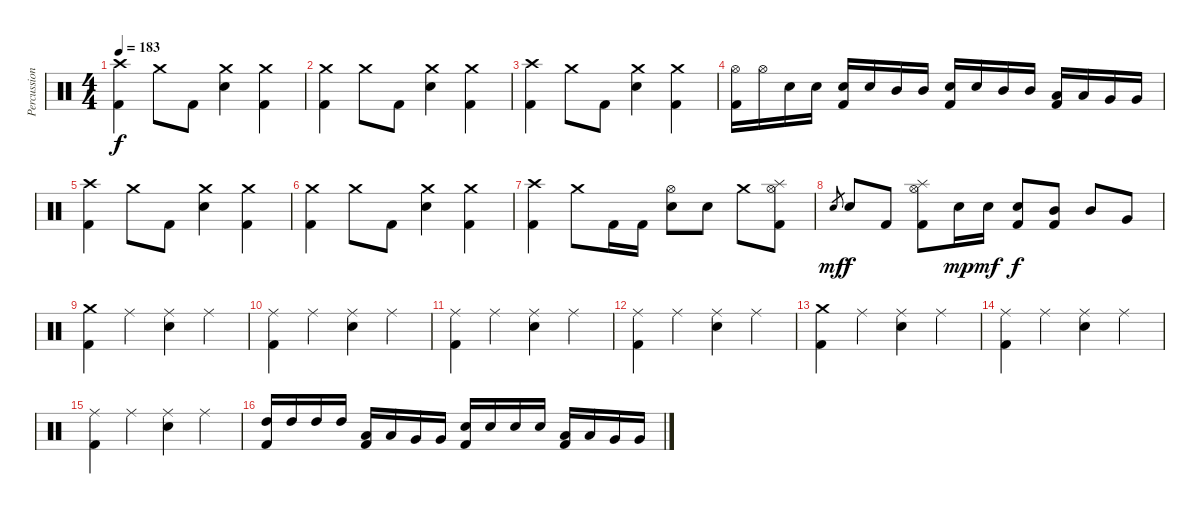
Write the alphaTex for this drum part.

\track ("Percussion" "Percussion") {instrument percussion}
\staff {score}
\articulation defaults
\ts (4 4)
\tempo 183
\clef neutral
\ks c
("Crash high (hit)" "Kick (hit) 2").4{dy f} "Crash medium (hit)".8 "Kick (hit) 2".8 ("Crash medium (hit)" "Electric Snare (hit)").4 ("Crash medium (hit)" "Kick (hit) 2").4 |
("Crash medium (hit)" "Kick (hit) 2").4 "Crash medium (hit)".8 "Kick (hit) 2".8 ("Crash medium (hit)" "Electric Snare (hit)").4 ("Crash medium (hit)" "Kick (hit) 2").4 |
("Crash high (hit)" "Kick (hit) 2").4 "Crash medium (hit)".8 "Kick (hit) 2".8 ("Crash medium (hit)" "Electric Snare (hit)").4 ("Crash medium (hit)" "Kick (hit) 2").4 |
("Hi-Hat (open)" "Kick (hit) 2").16 "Hi-Hat (open)".16 "Electric Snare (hit)".16 "Electric Snare (hit)".16 ("Electric Snare (hit)" "Kick (hit) 2").16 "Electric Snare (hit)".16 "Mid Tom (hit)".16 "Mid Tom (hit)".16 ("Electric Snare (hit)" "Kick (hit) 2").16 "Electric Snare (hit)".16 "Mid Tom (hit)".16 "Mid Tom (hit)".16 ("Low Tom (hit)" "Kick (hit) 2").16 "Low Tom (hit)".16 "Very Low Tom (hit)".16 "Very Low Tom (hit)".16 |
("Crash high (hit)" "Kick (hit) 2").4 "Crash medium (hit)".8 "Kick (hit) 2".8 ("Crash medium (hit)" "Electric Snare (hit)").4 ("Crash medium (hit)" "Kick (hit) 2").4 |
("Crash medium (hit)" "Kick (hit) 2").4 "Crash medium (hit)".8 "Kick (hit) 2".8 ("Crash medium (hit)" "Electric Snare (hit)").4 ("Crash medium (hit)" "Kick (hit) 2").4 |
("Crash high (hit)" "Kick (hit) 2").4 "Crash medium (hit)".8 "Kick (hit) 2".16 "Kick (hit) 2".16 ("Hi-Hat (open)" "Electric Snare (hit)").8 "Electric Snare (hit)".8 "Crash medium (hit)".8 ("Hi-Hat (open)" "Splash (hit)" "Kick (hit) 2").8 |
"Electric Snare (hit)".8{gr dy mf} "Electric Snare (hit)".8{dy f} "Kick (hit) 2".8 ("Hi-Hat (open)" "Splash (hit)" "Kick (hit) 2").8 "Electric Snare (hit)".16{dy mp} "Electric Snare (hit)".16{dy mf} ("Electric Snare (hit)" "Kick (hit) 2").8{dy f} ("Mid Tom (hit)" "Kick (hit) 2").8 "Mid Tom (hit)".8 "Very Low Tom (hit)".8 |
("Crash medium (hit)" "Kick (hit) 2").4 "Ride (middle)".4 ("Ride (middle)" "Electric Snare (hit)").4 "Ride (middle)".4 |
("Ride (middle)" "Kick (hit) 2").4 "Ride (middle)".4 ("Ride (middle)" "Electric Snare (hit)").4 "Ride (middle)".4 |
("Ride (middle)" "Kick (hit) 2").4 "Ride (middle)".4 ("Ride (middle)" "Electric Snare (hit)").4 "Ride (middle)".4 |
("Ride (middle)" "Kick (hit) 2").4 "Ride (middle)".4 ("Ride (middle)" "Electric Snare (hit)").4 "Ride (middle)".4 |
("Crash medium (hit)" "Kick (hit) 2").4 "Ride (middle)".4 ("Ride (middle)" "Electric Snare (hit)").4 "Ride (middle)".4 |
("Ride (middle)" "Kick (hit) 2").4 "Ride (middle)".4 ("Ride (middle)" "Electric Snare (hit)").4 "Ride (middle)".4 |
("Ride (middle)" "Kick (hit) 2").4 "Ride (middle)".4 ("Ride (middle)" "Electric Snare (hit)").4 "Ride (middle)".4 |
("High Tom (hit)" "Kick (hit) 2").16 "High Tom (hit)".16 "High Tom (hit)".16 "High Tom (hit)".16 ("Low Tom (hit)" "Kick (hit) 2").16 "Low Tom (hit)".16 "Very Low Tom (hit)".16 "Very Low Tom (hit)".16 ("Electric Snare (hit)" "Kick (hit) 2").16 "Electric Snare (hit)".16 "Electric Snare (hit)".16 "Electric Snare (hit)".16 ("Low Tom (hit)" "Kick (hit) 2").16 "Low Tom (hit)".16 "Very Low Tom (hit)".16 "Very Low Tom (hit)".16
